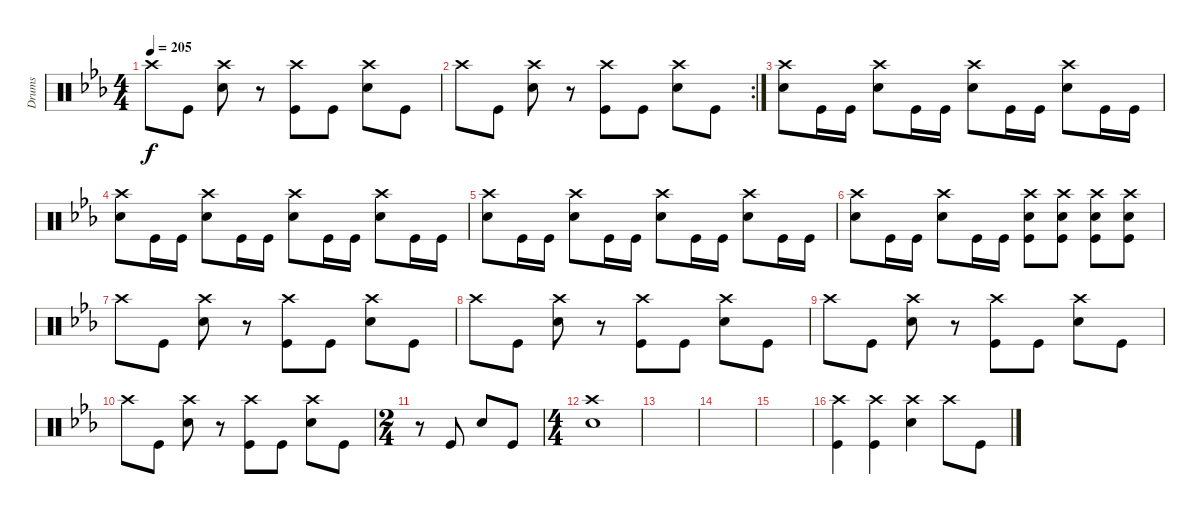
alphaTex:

\track ("Drums" "Drums") {instrument percussion}
\staff {score}
\articulation defaults
\ts (4 4)
\tempo 205
\clef neutral
\ks eb "Crash high (hit)".8{dy f} "Kick (hit)".8
("Crash high (hit)" "Snare (hit) 2").8 r.8 ("Crash high (hit)" "Kick (hit)").8 "Kick (hit)".8 ("Crash high (hit)" "Snare (hit) 2").8 "Kick (hit)".8 |
\rc 2 "Crash high (hit)".8 "Kick (hit)".8
("Crash high (hit)" "Snare (hit) 2").8 r.8 ("Crash high (hit)" "Kick (hit)").8 "Kick (hit)".8 ("Crash high (hit)" "Snare (hit) 2").8 "Kick (hit)".8 |
("Crash high (hit)" "Snare (hit) 2").8 "Kick (hit)".16 "Kick (hit)".16 ("Crash high (hit)" "Snare (hit) 2").8 "Kick (hit)".16 "Kick (hit)".16 ("Crash high (hit)" "Snare (hit) 2").8 "Kick (hit)".16 "Kick (hit)".16 ("Crash high (hit)" "Snare (hit) 2").8 "Kick (hit)".16 "Kick (hit)".16 |
("Crash high (hit)" "Snare (hit) 2").8 "Kick (hit)".16 "Kick (hit)".16 ("Crash high (hit)" "Snare (hit) 2").8 "Kick (hit)".16 "Kick (hit)".16 ("Crash high (hit)" "Snare (hit) 2").8 "Kick (hit)".16 "Kick (hit)".16 ("Crash high (hit)" "Snare (hit) 2").8 "Kick (hit)".16 "Kick (hit)".16 |
("Crash high (hit)" "Snare (hit) 2").8 "Kick (hit)".16 "Kick (hit)".16 ("Crash high (hit)" "Snare (hit) 2").8 "Kick (hit)".16 "Kick (hit)".16 ("Crash high (hit)" "Snare (hit) 2").8 "Kick (hit)".16 "Kick (hit)".16 ("Crash high (hit)" "Snare (hit) 2").8 "Kick (hit)".16 "Kick (hit)".16 |
("Crash high (hit)" "Snare (hit) 2").8 "Kick (hit)".16 "Kick (hit)".16 ("Crash high (hit)" "Snare (hit) 2").8 "Kick (hit)".16 "Kick (hit)".16 ("Crash high (hit)" "Snare (hit) 2" "Kick (hit)").8 ("Crash high (hit)" "Snare (hit) 2" "Kick (hit)").8 ("Crash high (hit)" "Snare (hit) 2" "Kick (hit)").8 ("Crash high (hit)" "Snare (hit) 2" "Kick (hit)").8 |
"Crash high (hit)".8 "Kick (hit)".8 ("Crash high (hit)" "Snare (hit) 2").8 r.8 ("Crash high (hit)" "Kick (hit)").8 "Kick (hit)".8 ("Crash high (hit)" "Snare (hit) 2").8 "Kick (hit)".8 |
"Crash high (hit)".8 "Kick (hit)".8 ("Crash high (hit)" "Snare (hit) 2").8 r.8 ("Crash high (hit)" "Kick (hit)").8 "Kick (hit)".8 ("Crash high (hit)" "Snare (hit) 2").8 "Kick (hit)".8 |
"Crash high (hit)".8 "Kick (hit)".8 ("Crash high (hit)" "Snare (hit) 2").8 r.8 ("Crash high (hit)" "Kick (hit)").8 "Kick (hit)".8 ("Crash high (hit)" "Snare (hit) 2").8 "Kick (hit)".8 |
"Crash high (hit)".8 "Kick (hit)".8 ("Crash high (hit)" "Snare (hit) 2").8 r.8 ("Crash high (hit)" "Kick (hit)").8 "Kick (hit)".8 ("Crash high (hit)" "Snare (hit) 2").8 "Kick (hit)".8 |
\ts (2 4)
r.8 "Kick (hit)".8 "Snare (hit) 2".8 "Kick (hit)".8 |
\ts (4 4)
("Crash high (hit)" "Snare (hit) 2").1 |
|
|
|
("Crash high (hit)" "Kick (hit)").4 ("Crash high (hit)" "Kick (hit)").4 ("Crash high (hit)" "Snare (hit) 2").4 "Crash high (hit)".8 "Kick (hit)".8
